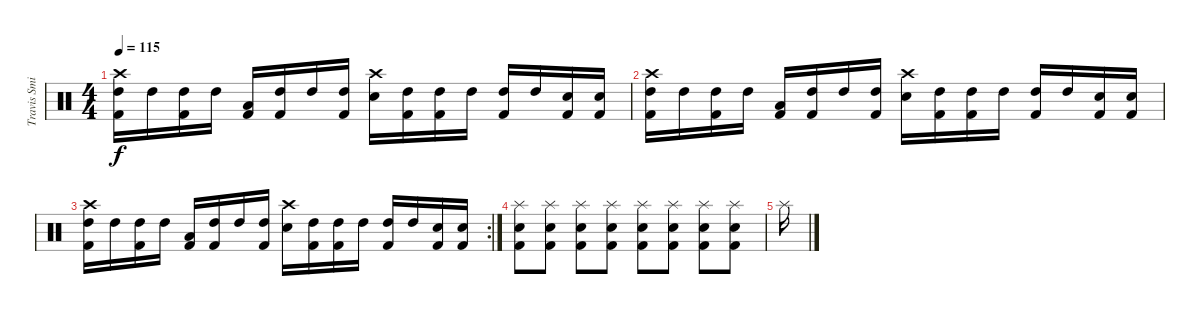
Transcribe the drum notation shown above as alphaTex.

\track ("Travis Smith" "Travis Smi") {instrument percussion}
\staff {score}
\articulation defaults
\ts (4 4)
\tempo 115
\clef neutral
\ks c
("Crash high (hit)" "High Tom (hit)" "Kick (hit) 2").16{dy f} "High Tom (hit)".16 ("High Tom (hit)" "Kick (hit) 2").16 "High Tom (hit)".16 ("Low Tom (hit)" "Kick (hit) 2").16 ("High Tom (hit)" "Kick (hit) 2").16 "High Tom (hit)".16 ("High Tom (hit)" "Kick (hit) 2").16 ("Crash high (hit)" "Electric Snare (hit)").16 ("High Tom (hit)" "Kick (hit) 2").16 ("High Tom (hit)" "Kick (hit) 2").16 "High Tom (hit)".16 ("High Tom (hit)" "Kick (hit) 2").16 "High Tom (hit)".16 ("Electric Snare (hit)" "Kick (hit) 2").16 ("Electric Snare (hit)" "Kick (hit) 2").16 |
("Crash high (hit)" "High Tom (hit)" "Kick (hit) 2").16 "High Tom (hit)".16 ("High Tom (hit)" "Kick (hit) 2").16 "High Tom (hit)".16 ("Low Tom (hit)" "Kick (hit) 2").16 ("High Tom (hit)" "Kick (hit) 2").16 "High Tom (hit)".16 ("High Tom (hit)" "Kick (hit) 2").16 ("Crash high (hit)" "Electric Snare (hit)").16 ("High Tom (hit)" "Kick (hit) 2").16 ("High Tom (hit)" "Kick (hit) 2").16 "High Tom (hit)".16 ("High Tom (hit)" "Kick (hit) 2").16 "High Tom (hit)".16 ("Electric Snare (hit)" "Kick (hit) 2").16 ("Electric Snare (hit)" "Kick (hit) 2").16 |
\rc 2
("Crash high (hit)" "High Tom (hit)" "Kick (hit) 2").16 "High Tom (hit)".16 ("High Tom (hit)" "Kick (hit) 2").16 "High Tom (hit)".16 ("Low Tom (hit)" "Kick (hit) 2").16 ("High Tom (hit)" "Kick (hit) 2").16 "High Tom (hit)".16 ("High Tom (hit)" "Kick (hit) 2").16 ("Crash high (hit)" "Electric Snare (hit)").16 ("High Tom (hit)" "Kick (hit) 2").16 ("High Tom (hit)" "Kick (hit) 2").16 "High Tom (hit)".16 ("High Tom (hit)" "Kick (hit) 2").16 "High Tom (hit)".16 ("Electric Snare (hit)" "Kick (hit) 2").16 ("Electric Snare (hit)" "Kick (hit) 2").16 |
("Electric Snare (hit)" "Splash (hit)" "Kick (hit) 2").8 ("Electric Snare (hit)" "Splash (hit)" "Kick (hit) 2").8 ("Electric Snare (hit)" "Splash (hit)" "Kick (hit) 2").8 ("Electric Snare (hit)" "Splash (hit)" "Kick (hit) 2").8 ("Electric Snare (hit)" "Splash (hit)" "Kick (hit) 2").8 ("Electric Snare (hit)" "Splash (hit)" "Kick (hit) 2").8 ("Electric Snare (hit)" "Splash (hit)" "Kick (hit) 2").8 ("Electric Snare (hit)" "Splash (hit)" "Kick (hit) 2").8 |
"Splash (hit)".16
